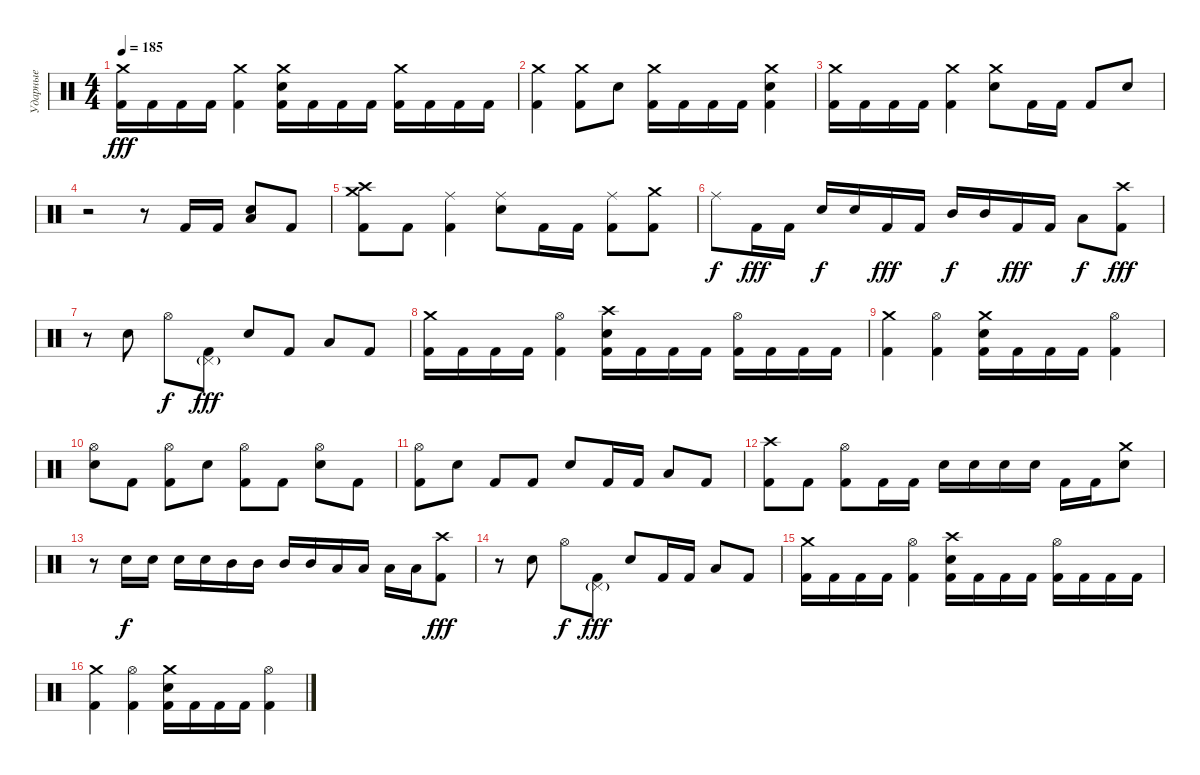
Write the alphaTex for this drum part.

\track ("Ударные" "Ударные") {instrument percussion}
\staff {score}
\articulation defaults
\ts (4 4)
\tempo 185
\clef neutral
\ks c
("Crash medium (hit)" "Kick (hit) 2").16{dy fff} "Kick (hit) 2".16 "Kick (hit) 2".16 "Kick (hit) 2".16 ("Crash medium (hit)" "Kick (hit) 2").4 ("Crash medium (hit)" "Electric Snare (hit)" "Kick (hit) 2").16 "Kick (hit) 2".16 "Kick (hit) 2".16 "Kick (hit) 2".16 ("Crash medium (hit)" "Kick (hit) 2").16 "Kick (hit) 2".16 "Kick (hit) 2".16 "Kick (hit) 2".16 |
("Crash medium (hit)" "Kick (hit) 2").4 ("Crash medium (hit)" "Kick (hit) 2").8 "Electric Snare (hit)".8 ("Crash medium (hit)" "Kick (hit) 2").16 "Kick (hit) 2".16 "Kick (hit) 2".16 "Kick (hit) 2".16 ("Crash medium (hit)" "Electric Snare (hit)" "Kick (hit) 2").4 |
("Crash medium (hit)" "Kick (hit) 2").16 "Kick (hit) 2".16 "Kick (hit) 2".16 "Kick (hit) 2".16 ("Crash medium (hit)" "Kick (hit) 2").4 ("Crash medium (hit)" "Electric Snare (hit)").8 "Kick (hit) 2".16 "Kick (hit) 2".16 "Kick (hit) 2".8 "Electric Snare (hit)".8 |
r.2 r.8 "Kick (hit) 2".16 "Kick (hit) 2".16 ("Low Floor Tom (hit)" "Electric Snare (hit)").8 "Kick (hit) 2".8 |
("Crash high (hit)" "Crash medium (hit)" "Kick (hit) 2").8 "Kick (hit) 2".8 ("Ride (middle)" "Kick (hit) 2").4 ("Ride (middle)" "Electric Snare (hit)").8 "Kick (hit) 2".16 "Kick (hit) 2".16 ("Ride (middle)" "Kick (hit) 2").8 ("Crash medium (hit)" "Kick (hit) 2").8 |
"Ride (middle)".8{dy f} "Kick (hit) 2".16{dy fff} "Kick (hit) 2".16 "Electric Snare (hit)".16{dy f} "Electric Snare (hit)".16 "Kick (hit) 2".16{dy fff} "Kick (hit) 2".16 "Mid Tom (hit)".16{dy f} "Mid Tom (hit)".16 "Kick (hit) 2".16{dy fff} "Kick (hit) 2".16 "Low Floor Tom (hit)".8{dy f} ("Crash high (hit)" "Kick (hit) 2").8{dy fff} |
r.8 "Electric Snare (hit)".8 "Hi-Hat (open)".8{dy f} ("Pedal Hi-Hat (hit)"{g} "Kick (hit) 2").8{dy fff} "Electric Snare (hit)".8 "Kick (hit) 2".8 "Low Floor Tom (hit)".8 "Kick (hit) 2".8 |
("Crash medium (hit)" "Kick (hit) 2").16 "Kick (hit) 2".16 "Kick (hit) 2".16 "Kick (hit) 2".16 ("Hi-Hat (open)" "Kick (hit) 2").4 ("Crash high (hit)" "Electric Snare (hit)" "Kick (hit) 2").16 "Kick (hit) 2".16 "Kick (hit) 2".16 "Kick (hit) 2".16 ("Hi-Hat (open)" "Kick (hit) 2").16 "Kick (hit) 2".16 "Kick (hit) 2".16 "Kick (hit) 2".16 |
("Crash medium (hit)" "Kick (hit) 2").4 ("Hi-Hat (open)" "Kick (hit) 2").4 ("Crash medium (hit)" "Electric Snare (hit)" "Kick (hit) 2").16 "Kick (hit) 2".16 "Kick (hit) 2".16 "Kick (hit) 2".16 ("Hi-Hat (open)" "Kick (hit) 2").4 |
("Hi-Hat (open)" "Electric Snare (hit)").8 "Kick (hit) 2".8 ("Hi-Hat (open)" "Kick (hit) 2").8 "Electric Snare (hit)".8 ("Hi-Hat (open)" "Kick (hit) 2").8 "Kick (hit) 2".8 ("Hi-Hat (open)" "Electric Snare (hit)").8 "Kick (hit) 2".8 |
("Hi-Hat (open)" "Kick (hit) 2").8 "Electric Snare (hit)".8 "Kick (hit) 2".8 "Kick (hit) 2".8 "Electric Snare (hit)".8 "Kick (hit) 2".16 "Kick (hit) 2".16 "Low Floor Tom (hit)".8 "Kick (hit) 2".8 |
("Crash high (hit)" "Kick (hit) 2").8 "Kick (hit) 2".8 ("Hi-Hat (open)" "Kick (hit) 2").8 "Kick (hit) 2".16 "Kick (hit) 2".16 "Electric Snare (hit)".16 "Electric Snare (hit)".16 "Electric Snare (hit)".16 "Electric Snare (hit)".16 "Kick (hit) 2".16 "Kick (hit) 2".16 ("Crash medium (hit)" "Electric Snare (hit)").8 |
r.8 "Electric Snare (hit)".16{dy f} "Electric Snare (hit)".16 "Electric Snare (hit)".16 "Electric Snare (hit)".16 "Mid Tom (hit)".16 "Mid Tom (hit)".16 "Mid Tom (hit)".16 "Mid Tom (hit)".16 "Low Floor Tom (hit)".16 "Low Floor Tom (hit)".16 "Low Floor Tom (hit)".16 "Low Floor Tom (hit)".16 ("Crash high (hit)" "Kick (hit) 2").8{dy fff} |
r.8 "Electric Snare (hit)".8 "Hi-Hat (open)".8{dy f} ("Pedal Hi-Hat (hit)"{g} "Kick (hit) 2").8{dy fff} "Electric Snare (hit)".8 "Kick (hit) 2".16 "Kick (hit) 2".16 "Low Floor Tom (hit)".8 "Kick (hit) 2".8 |
("Crash medium (hit)" "Kick (hit) 2").16 "Kick (hit) 2".16 "Kick (hit) 2".16 "Kick (hit) 2".16 ("Hi-Hat (open)" "Kick (hit) 2").4 ("Crash high (hit)" "Electric Snare (hit)" "Kick (hit) 2").16 "Kick (hit) 2".16 "Kick (hit) 2".16 "Kick (hit) 2".16 ("Hi-Hat (open)" "Kick (hit) 2").16 "Kick (hit) 2".16 "Kick (hit) 2".16 "Kick (hit) 2".16 |
("Crash medium (hit)" "Kick (hit) 2").4 ("Hi-Hat (open)" "Kick (hit) 2").4 ("Crash medium (hit)" "Electric Snare (hit)" "Kick (hit) 2").16 "Kick (hit) 2".16 "Kick (hit) 2".16 "Kick (hit) 2".16 ("Hi-Hat (open)" "Kick (hit) 2").4
